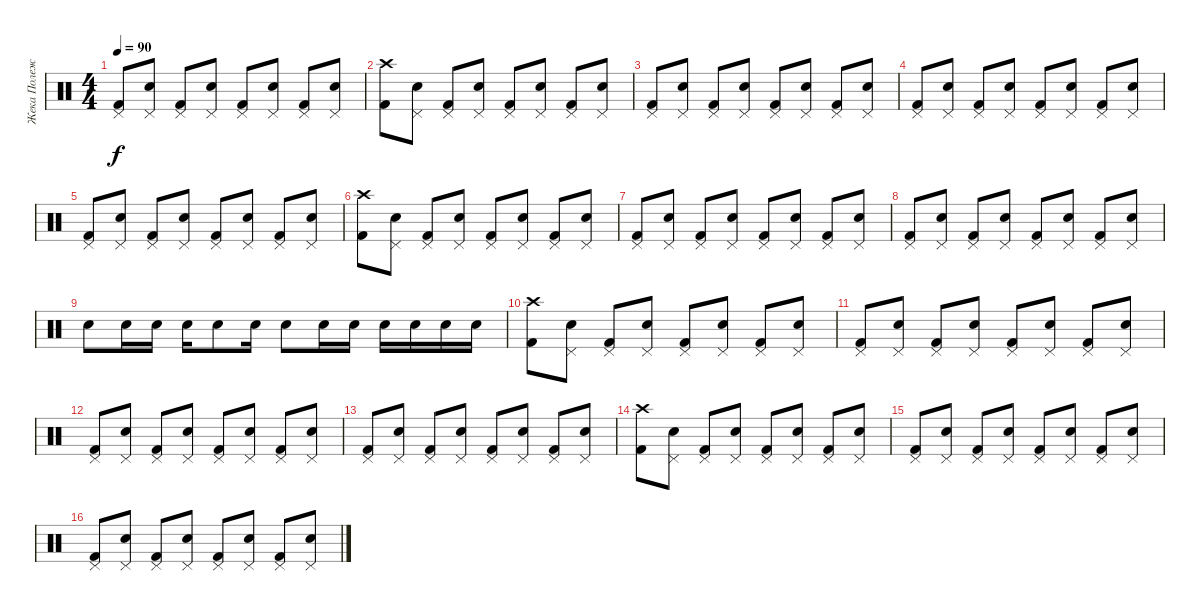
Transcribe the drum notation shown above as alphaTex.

\track ("Жека Полежаев" "Жека Полеж") {instrument percussion}
\staff {score}
\articulation defaults
\ts (4 4)
\tempo 90
\clef neutral
\ks c
("Pedal Hi-Hat (hit)" "Kick (hit) 2").8{dy f} ("Pedal Hi-Hat (hit)" "Snare (hit) 2").8 ("Pedal Hi-Hat (hit)" "Kick (hit) 2").8 ("Pedal Hi-Hat (hit)" "Snare (hit) 2").8 ("Pedal Hi-Hat (hit)" "Kick (hit) 2").8 ("Pedal Hi-Hat (hit)" "Snare (hit) 2").8 ("Pedal Hi-Hat (hit)" "Kick (hit) 2").8 ("Pedal Hi-Hat (hit)" "Snare (hit) 2").8 |
("Crash high (hit)" "Kick (hit) 2").8 ("Pedal Hi-Hat (hit)" "Snare (hit) 2").8 ("Pedal Hi-Hat (hit)" "Kick (hit) 2").8 ("Pedal Hi-Hat (hit)" "Snare (hit) 2").8 ("Pedal Hi-Hat (hit)" "Kick (hit) 2").8 ("Pedal Hi-Hat (hit)" "Snare (hit) 2").8 ("Pedal Hi-Hat (hit)" "Kick (hit) 2").8 ("Pedal Hi-Hat (hit)" "Snare (hit) 2").8 |
("Pedal Hi-Hat (hit)" "Kick (hit) 2").8 ("Pedal Hi-Hat (hit)" "Snare (hit) 2").8 ("Pedal Hi-Hat (hit)" "Kick (hit) 2").8 ("Pedal Hi-Hat (hit)" "Snare (hit) 2").8 ("Pedal Hi-Hat (hit)" "Kick (hit) 2").8 ("Pedal Hi-Hat (hit)" "Snare (hit) 2").8 ("Pedal Hi-Hat (hit)" "Kick (hit) 2").8 ("Pedal Hi-Hat (hit)" "Snare (hit) 2").8 |
("Pedal Hi-Hat (hit)" "Kick (hit) 2").8 ("Pedal Hi-Hat (hit)" "Snare (hit) 2").8 ("Pedal Hi-Hat (hit)" "Kick (hit) 2").8 ("Pedal Hi-Hat (hit)" "Snare (hit) 2").8 ("Pedal Hi-Hat (hit)" "Kick (hit) 2").8 ("Pedal Hi-Hat (hit)" "Snare (hit) 2").8 ("Pedal Hi-Hat (hit)" "Kick (hit) 2").8 ("Pedal Hi-Hat (hit)" "Snare (hit) 2").8 |
("Pedal Hi-Hat (hit)" "Kick (hit) 2").8 ("Pedal Hi-Hat (hit)" "Snare (hit) 2").8 ("Pedal Hi-Hat (hit)" "Kick (hit) 2").8 ("Pedal Hi-Hat (hit)" "Snare (hit) 2").8 ("Pedal Hi-Hat (hit)" "Kick (hit) 2").8 ("Pedal Hi-Hat (hit)" "Snare (hit) 2").8 ("Pedal Hi-Hat (hit)" "Kick (hit) 2").8 ("Pedal Hi-Hat (hit)" "Snare (hit) 2").8 |
("Crash high (hit)" "Kick (hit) 2").8 ("Pedal Hi-Hat (hit)" "Snare (hit) 2").8 ("Pedal Hi-Hat (hit)" "Kick (hit) 2").8 ("Pedal Hi-Hat (hit)" "Snare (hit) 2").8 ("Pedal Hi-Hat (hit)" "Kick (hit) 2").8 ("Pedal Hi-Hat (hit)" "Snare (hit) 2").8 ("Pedal Hi-Hat (hit)" "Kick (hit) 2").8 ("Pedal Hi-Hat (hit)" "Snare (hit) 2").8 |
("Pedal Hi-Hat (hit)" "Kick (hit) 2").8 ("Pedal Hi-Hat (hit)" "Snare (hit) 2").8 ("Pedal Hi-Hat (hit)" "Kick (hit) 2").8 ("Pedal Hi-Hat (hit)" "Snare (hit) 2").8 ("Pedal Hi-Hat (hit)" "Kick (hit) 2").8 ("Pedal Hi-Hat (hit)" "Snare (hit) 2").8 ("Pedal Hi-Hat (hit)" "Kick (hit) 2").8 ("Pedal Hi-Hat (hit)" "Snare (hit) 2").8 |
("Pedal Hi-Hat (hit)" "Kick (hit) 2").8 ("Pedal Hi-Hat (hit)" "Snare (hit) 2").8 ("Pedal Hi-Hat (hit)" "Kick (hit) 2").8 ("Pedal Hi-Hat (hit)" "Snare (hit) 2").8 ("Pedal Hi-Hat (hit)" "Kick (hit) 2").8 ("Pedal Hi-Hat (hit)" "Snare (hit) 2").8 ("Pedal Hi-Hat (hit)" "Kick (hit) 2").8 ("Pedal Hi-Hat (hit)" "Snare (hit) 2").8 |
"Snare (hit) 2".8 "Snare (hit) 2".16 "Snare (hit) 2".16 "Snare (hit) 2".16 "Snare (hit) 2".8 "Snare (hit) 2".16 "Snare (hit) 2".8 "Snare (hit) 2".16 "Snare (hit) 2".16 "Snare (hit) 2".16 "Snare (hit) 2".16 "Snare (hit) 2".16 "Snare (hit) 2".16 |
("Crash high (hit)" "Kick (hit) 2").8 ("Pedal Hi-Hat (hit)" "Snare (hit) 2").8 ("Pedal Hi-Hat (hit)" "Kick (hit) 2").8 ("Pedal Hi-Hat (hit)" "Snare (hit) 2").8 ("Pedal Hi-Hat (hit)" "Kick (hit) 2").8 ("Pedal Hi-Hat (hit)" "Snare (hit) 2").8 ("Pedal Hi-Hat (hit)" "Kick (hit) 2").8 ("Pedal Hi-Hat (hit)" "Snare (hit) 2").8 |
("Pedal Hi-Hat (hit)" "Kick (hit) 2").8 ("Pedal Hi-Hat (hit)" "Snare (hit) 2").8 ("Pedal Hi-Hat (hit)" "Kick (hit) 2").8 ("Pedal Hi-Hat (hit)" "Snare (hit) 2").8 ("Pedal Hi-Hat (hit)" "Kick (hit) 2").8 ("Pedal Hi-Hat (hit)" "Snare (hit) 2").8 ("Pedal Hi-Hat (hit)" "Kick (hit) 2").8 ("Pedal Hi-Hat (hit)" "Snare (hit) 2").8 |
("Pedal Hi-Hat (hit)" "Kick (hit) 2").8 ("Pedal Hi-Hat (hit)" "Snare (hit) 2").8 ("Pedal Hi-Hat (hit)" "Kick (hit) 2").8 ("Pedal Hi-Hat (hit)" "Snare (hit) 2").8 ("Pedal Hi-Hat (hit)" "Kick (hit) 2").8 ("Pedal Hi-Hat (hit)" "Snare (hit) 2").8 ("Pedal Hi-Hat (hit)" "Kick (hit) 2").8 ("Pedal Hi-Hat (hit)" "Snare (hit) 2").8 |
("Pedal Hi-Hat (hit)" "Kick (hit) 2").8 ("Pedal Hi-Hat (hit)" "Snare (hit) 2").8 ("Pedal Hi-Hat (hit)" "Kick (hit) 2").8 ("Pedal Hi-Hat (hit)" "Snare (hit) 2").8 ("Pedal Hi-Hat (hit)" "Kick (hit) 2").8 ("Pedal Hi-Hat (hit)" "Snare (hit) 2").8 ("Pedal Hi-Hat (hit)" "Kick (hit) 2").8 ("Pedal Hi-Hat (hit)" "Snare (hit) 2").8 |
("Crash high (hit)" "Kick (hit) 2").8 ("Pedal Hi-Hat (hit)" "Snare (hit) 2").8 ("Pedal Hi-Hat (hit)" "Kick (hit) 2").8 ("Pedal Hi-Hat (hit)" "Snare (hit) 2").8 ("Pedal Hi-Hat (hit)" "Kick (hit) 2").8 ("Pedal Hi-Hat (hit)" "Snare (hit) 2").8 ("Pedal Hi-Hat (hit)" "Kick (hit) 2").8 ("Pedal Hi-Hat (hit)" "Snare (hit) 2").8 |
("Pedal Hi-Hat (hit)" "Kick (hit) 2").8 ("Pedal Hi-Hat (hit)" "Snare (hit) 2").8 ("Pedal Hi-Hat (hit)" "Kick (hit) 2").8 ("Pedal Hi-Hat (hit)" "Snare (hit) 2").8 ("Pedal Hi-Hat (hit)" "Kick (hit) 2").8 ("Pedal Hi-Hat (hit)" "Snare (hit) 2").8 ("Pedal Hi-Hat (hit)" "Kick (hit) 2").8 ("Pedal Hi-Hat (hit)" "Snare (hit) 2").8 |
("Pedal Hi-Hat (hit)" "Kick (hit) 2").8 ("Pedal Hi-Hat (hit)" "Snare (hit) 2").8 ("Pedal Hi-Hat (hit)" "Kick (hit) 2").8 ("Pedal Hi-Hat (hit)" "Snare (hit) 2").8 ("Pedal Hi-Hat (hit)" "Kick (hit) 2").8 ("Pedal Hi-Hat (hit)" "Snare (hit) 2").8 ("Pedal Hi-Hat (hit)" "Kick (hit) 2").8 ("Pedal Hi-Hat (hit)" "Snare (hit) 2").8
